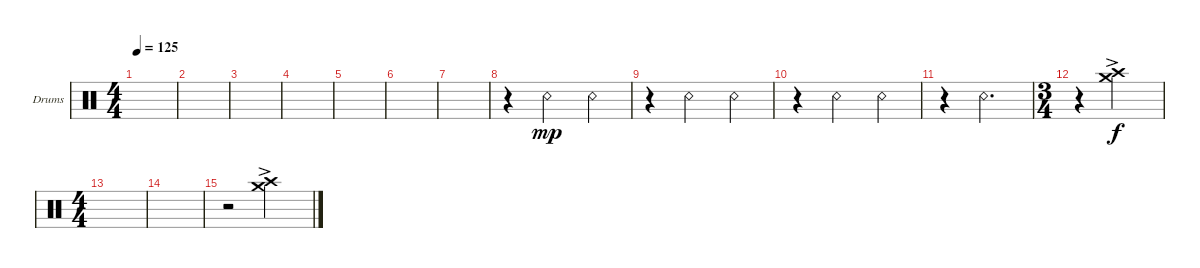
\defaultSystemsLayout 4
\bracketExtendMode groupsimilarinstruments
\firstSystemTrackNameOrientation horizontal
\otherSystemsTrackNameOrientation horizontal
\track ("Drumkit" "Drums") {instrument percussion}
\staff {score}
\articulation defaults
\ts (4 4)
\tempo 125
\clef neutral
\scale
0.333333
\ks c
|
\scale
0.333333 |
\scale
0.333333 |
\scale
0.333333 |
\scale
0.333333 |
\scale
0.333333 |
\scale
0.333333 |
\scale
0.333333 r.4 "Snare (rim shot)".2{dy mp} "Snare (rim shot)".4 |
\scale
0.333333 r.4 "Snare (rim shot)".2 "Snare (rim shot)".4 |
\scale
0.262911 r.4 "Snare (rim shot)".2 "Snare (rim shot)".4 |
\scale
0.262911 r.4 "Snare (rim shot)".2{d} |
\ts (3 4)
\scale
0.474178 r.4 ("Crash high (hit)"{ac} "Crash medium (hit)"{ac}).2{dy f} |
\ts (4 4)
\scale
0.474178 |
\scale
0.262911 |
\scale
0.262911 r.2 ("Crash high (hit)"{ac} "Crash medium (hit)"{ac}).2 |
\scale
0.333333
